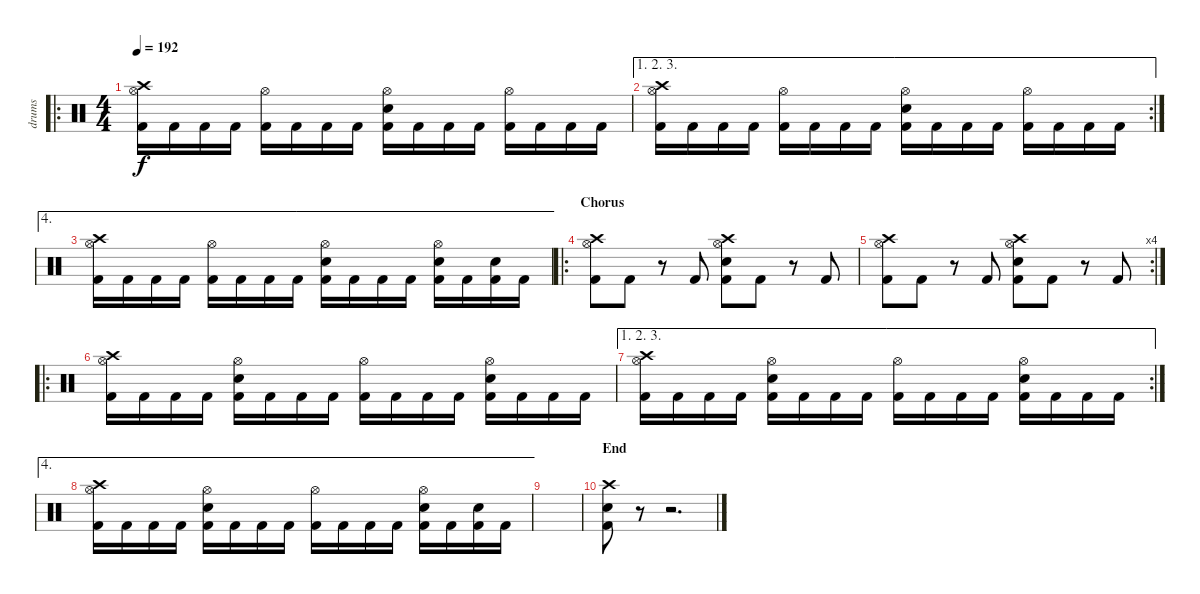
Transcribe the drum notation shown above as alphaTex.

\track ("drums" "drums") {instrument percussion}
\staff {score}
\articulation defaults
\ro
\ts (4 4)
\tempo 192
\clef neutral
\ks c
("Crash high (hit)" "Hi-Hat (open)" "Kick (hit) 2").16{dy f} "Kick (hit) 2".16 "Kick (hit) 2".16 "Kick (hit) 2".16 ("Hi-Hat (open)" "Kick (hit) 2").16 "Kick (hit) 2".16 "Kick (hit) 2".16 "Kick (hit) 2".16 ("Hi-Hat (open)" "Electric Snare (hit)" "Kick (hit) 2").16 "Kick (hit) 2".16 "Kick (hit) 2".16 "Kick (hit) 2".16 ("Hi-Hat (open)" "Kick (hit) 2").16 "Kick (hit) 2".16 "Kick (hit) 2".16 "Kick (hit) 2".16 |
\ae (1 2 3)
\rc 2
("Crash high (hit)" "Hi-Hat (open)" "Kick (hit) 2").16 "Kick (hit) 2".16 "Kick (hit) 2".16 "Kick (hit) 2".16 ("Hi-Hat (open)" "Kick (hit) 2").16 "Kick (hit) 2".16 "Kick (hit) 2".16 "Kick (hit) 2".16 ("Hi-Hat (open)" "Electric Snare (hit)" "Kick (hit) 2").16 "Kick (hit) 2".16 "Kick (hit) 2".16 "Kick (hit) 2".16 ("Hi-Hat (open)" "Kick (hit) 2").16 "Kick (hit) 2".16 "Kick (hit) 2".16 "Kick (hit) 2".16 |
\ae 4
("Crash high (hit)" "Hi-Hat (open)" "Kick (hit) 2").16 "Kick (hit) 2".16 "Kick (hit) 2".16 "Kick (hit) 2".16 ("Hi-Hat (open)" "Kick (hit) 2").16 "Kick (hit) 2".16 "Kick (hit) 2".16 "Kick (hit) 2".16 ("Hi-Hat (open)" "Electric Snare (hit)" "Kick (hit) 2").16 "Kick (hit) 2".16 "Kick (hit) 2".16 "Kick (hit) 2".16 ("Hi-Hat (open)" "Electric Snare (hit)" "Kick (hit) 2").16 "Kick (hit) 2".16 ("Electric Snare (hit)" "Kick (hit) 2").16 "Kick (hit) 2".16 |
\ro
\section ("" "Chorus")
("Crash high (hit)" "Hi-Hat (open)" "Kick (hit) 2").8 "Kick (hit) 2".8 r.8 "Kick (hit) 2".8 ("Crash high (hit)" "Hi-Hat (open)" "Electric Snare (hit)" "Kick (hit) 2").8 "Kick (hit) 2".8 r.8 "Kick (hit) 2".8 |
\rc 4
("Crash high (hit)" "Hi-Hat (open)" "Kick (hit) 2").8 "Kick (hit) 2".8 r.8 "Kick (hit) 2".8 ("Crash high (hit)" "Hi-Hat (open)" "Electric Snare (hit)" "Kick (hit) 2").8 "Kick (hit) 2".8 r.8 "Kick (hit) 2".8 |
\ro
("Crash high (hit)" "Hi-Hat (open)" "Kick (hit) 2").16 "Kick (hit) 2".16 "Kick (hit) 2".16 "Kick (hit) 2".16 ("Hi-Hat (open)" "Electric Snare (hit)" "Kick (hit) 2").16 "Kick (hit) 2".16 "Kick (hit) 2".16 "Kick (hit) 2".16 ("Hi-Hat (open)" "Kick (hit) 2").16 "Kick (hit) 2".16 "Kick (hit) 2".16 "Kick (hit) 2".16 ("Hi-Hat (open)" "Electric Snare (hit)" "Kick (hit) 2").16 "Kick (hit) 2".16 "Kick (hit) 2".16 "Kick (hit) 2".16 |
\ae (1 2 3)
\rc 2
("Crash high (hit)" "Hi-Hat (open)" "Kick (hit) 2").16 "Kick (hit) 2".16 "Kick (hit) 2".16 "Kick (hit) 2".16 ("Hi-Hat (open)" "Electric Snare (hit)" "Kick (hit) 2").16 "Kick (hit) 2".16 "Kick (hit) 2".16 "Kick (hit) 2".16 ("Hi-Hat (open)" "Kick (hit) 2").16 "Kick (hit) 2".16 "Kick (hit) 2".16 "Kick (hit) 2".16 ("Hi-Hat (open)" "Electric Snare (hit)" "Kick (hit) 2").16 "Kick (hit) 2".16 "Kick (hit) 2".16 "Kick (hit) 2".16 |
\ae 4
("Crash high (hit)" "Hi-Hat (open)" "Kick (hit) 2").16 "Kick (hit) 2".16 "Kick (hit) 2".16 "Kick (hit) 2".16 ("Hi-Hat (open)" "Electric Snare (hit)" "Kick (hit) 2").16 "Kick (hit) 2".16 "Kick (hit) 2".16 "Kick (hit) 2".16 ("Hi-Hat (open)" "Kick (hit) 2").16 "Kick (hit) 2".16 "Kick (hit) 2".16 "Kick (hit) 2".16 ("Hi-Hat (open)" "Electric Snare (hit)" "Kick (hit) 2").16 "Kick (hit) 2".16 ("Electric Snare (hit)" "Kick (hit) 2").16 "Kick (hit) 2".16 |
|
\section ("" "End")
("Crash high (hit)" "Electric Snare (hit)" "Kick (hit) 2").8 r.8 r.2{d}
